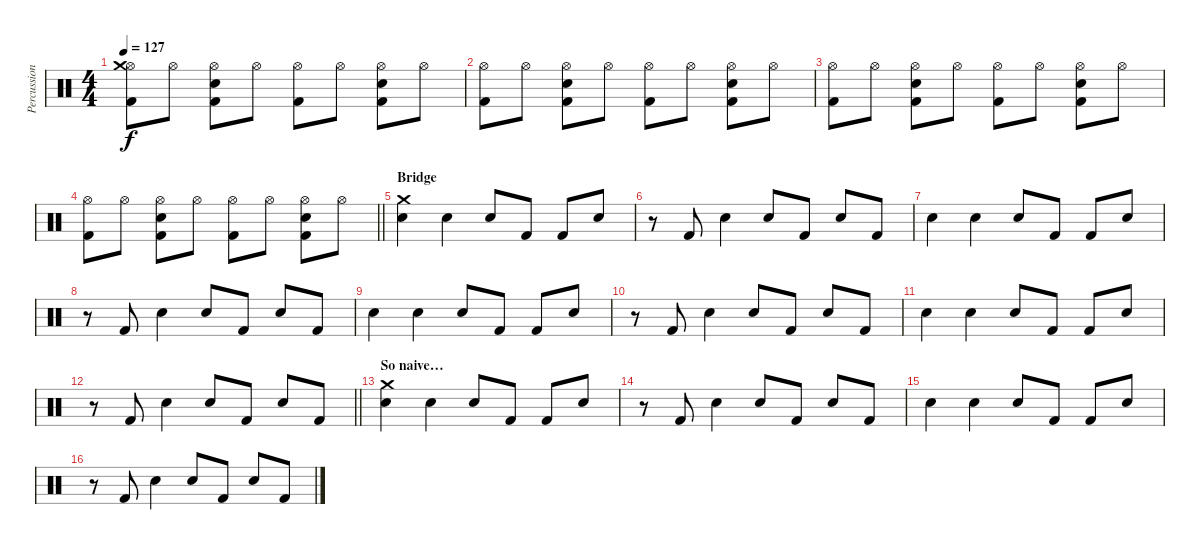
\track ("Percussion" "Percussion") {instrument percussion}
\staff {score}
\articulation defaults
\ts (4 4)
\tempo 127
\clef neutral
\ks c
("Hi-Hat (open)" "Crash medium (hit)" "Kick (hit) 2").8{dy f} "Hi-Hat (open)".8 ("Hi-Hat (open)" "Electric Snare (hit)" "Kick (hit) 2").8 "Hi-Hat (open)".8 ("Hi-Hat (open)" "Kick (hit) 2").8 "Hi-Hat (open)".8 ("Hi-Hat (open)" "Electric Snare (hit)" "Kick (hit) 2").8 "Hi-Hat (open)".8 |
("Hi-Hat (open)" "Kick (hit) 2").8 "Hi-Hat (open)".8 ("Hi-Hat (open)" "Electric Snare (hit)" "Kick (hit) 2").8 "Hi-Hat (open)".8 ("Hi-Hat (open)" "Kick (hit) 2").8 "Hi-Hat (open)".8 ("Hi-Hat (open)" "Electric Snare (hit)" "Kick (hit) 2").8 "Hi-Hat (open)".8 |
("Hi-Hat (open)" "Kick (hit) 2").8 "Hi-Hat (open)".8 ("Hi-Hat (open)" "Electric Snare (hit)" "Kick (hit) 2").8 "Hi-Hat (open)".8 ("Hi-Hat (open)" "Kick (hit) 2").8 "Hi-Hat (open)".8 ("Hi-Hat (open)" "Electric Snare (hit)" "Kick (hit) 2").8 "Hi-Hat (open)".8 |
\barLineRight lightlight
("Hi-Hat (open)" "Kick (hit) 2").8 "Hi-Hat (open)".8 ("Hi-Hat (open)" "Electric Snare (hit)" "Kick (hit) 2").8 "Hi-Hat (open)".8 ("Hi-Hat (open)" "Kick (hit) 2").8 "Hi-Hat (open)".8 ("Hi-Hat (open)" "Electric Snare (hit)" "Kick (hit) 2").8 "Hi-Hat (open)".8 |
\section ("" "Bridge")
("Crash medium (hit)" "Electric Snare (hit)").4 "Electric Snare (hit)".4 "Electric Snare (hit)".8 "Kick (hit) 2".8 "Kick (hit) 2".8 "Electric Snare (hit)".8 |
r.8 "Kick (hit) 2".8 "Electric Snare (hit)".4 "Electric Snare (hit)".8 "Kick (hit) 2".8 "Electric Snare (hit)".8 "Kick (hit) 2".8 |
"Electric Snare (hit)".4 "Electric Snare (hit)".4 "Electric Snare (hit)".8 "Kick (hit) 2".8 "Kick (hit) 2".8 "Electric Snare (hit)".8 |
r.8 "Kick (hit) 2".8 "Electric Snare (hit)".4 "Electric Snare (hit)".8 "Kick (hit) 2".8 "Electric Snare (hit)".8 "Kick (hit) 2".8 |
"Electric Snare (hit)".4 "Electric Snare (hit)".4 "Electric Snare (hit)".8 "Kick (hit) 2".8 "Kick (hit) 2".8 "Electric Snare (hit)".8 |
r.8 "Kick (hit) 2".8 "Electric Snare (hit)".4 "Electric Snare (hit)".8 "Kick (hit) 2".8 "Electric Snare (hit)".8 "Kick (hit) 2".8 |
"Electric Snare (hit)".4 "Electric Snare (hit)".4 "Electric Snare (hit)".8 "Kick (hit) 2".8 "Kick (hit) 2".8 "Electric Snare (hit)".8 |
\barLineRight lightlight
r.8 "Kick (hit) 2".8 "Electric Snare (hit)".4 "Electric Snare (hit)".8 "Kick (hit) 2".8 "Electric Snare (hit)".8 "Kick (hit) 2".8 |
\section ("" "So naive…")
("Crash medium (hit)" "Electric Snare (hit)").4 "Electric Snare (hit)".4 "Electric Snare (hit)".8 "Kick (hit) 2".8 "Kick (hit) 2".8 "Electric Snare (hit)".8 |
r.8 "Kick (hit) 2".8 "Electric Snare (hit)".4 "Electric Snare (hit)".8 "Kick (hit) 2".8 "Electric Snare (hit)".8 "Kick (hit) 2".8 |
"Electric Snare (hit)".4 "Electric Snare (hit)".4 "Electric Snare (hit)".8 "Kick (hit) 2".8 "Kick (hit) 2".8 "Electric Snare (hit)".8 |
r.8 "Kick (hit) 2".8 "Electric Snare (hit)".4 "Electric Snare (hit)".8 "Kick (hit) 2".8 "Electric Snare (hit)".8 "Kick (hit) 2".8
